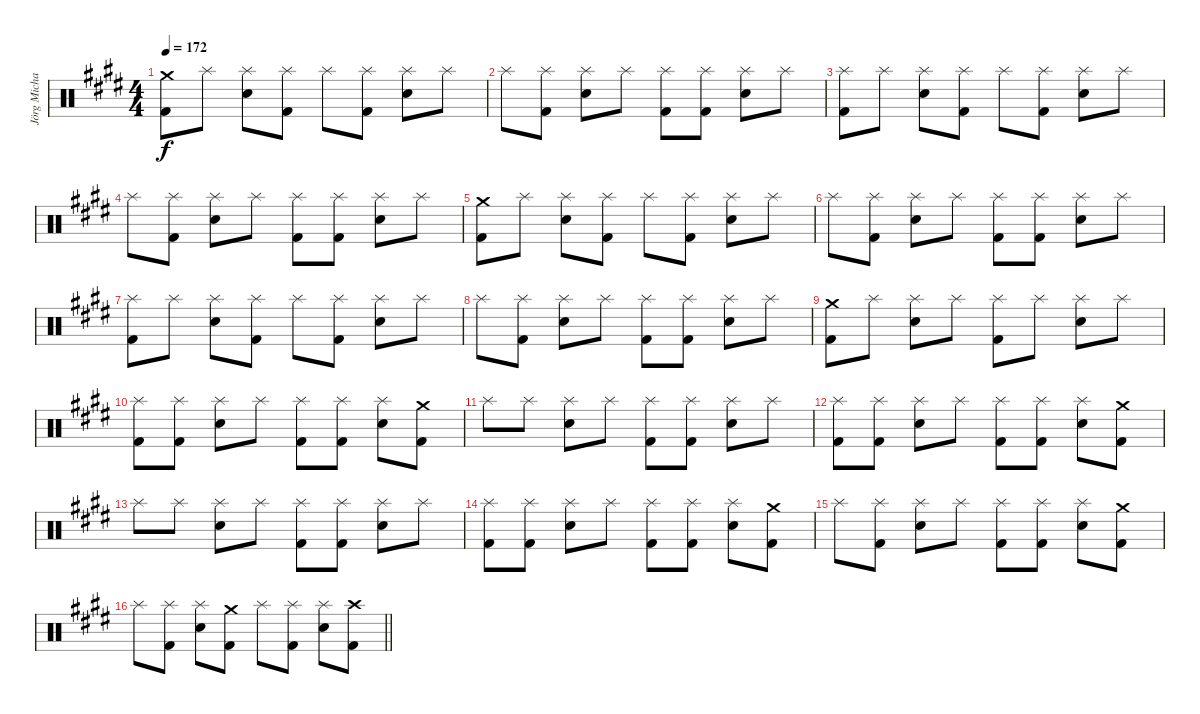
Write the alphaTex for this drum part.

\track ("Jörg Michael" "Jörg Micha") {instrument percussion}
\staff {score}
\articulation defaults
\ts (4 4)
\tempo 172
\clef neutral
\ks c#minor
("Crash medium (hit)" "Kick (hit) 2").8{dy f} "Splash (hit)".8 ("Splash (hit)" "Snare (hit) 2").8 ("Splash (hit)" "Kick (hit) 2").8 "Splash (hit)".8 ("Splash (hit)" "Kick (hit) 2").8 ("Splash (hit)" "Snare (hit) 2").8 "Splash (hit)".8 |
"Splash (hit)".8 ("Splash (hit)" "Kick (hit) 2").8 ("Splash (hit)" "Snare (hit) 2").8 "Splash (hit)".8 ("Splash (hit)" "Kick (hit) 2").8 ("Splash (hit)" "Kick (hit) 2").8 ("Splash (hit)" "Snare (hit) 2").8 "Splash (hit)".8 |
("Splash (hit)" "Kick (hit) 2").8 "Splash (hit)".8 ("Splash (hit)" "Snare (hit) 2").8 ("Splash (hit)" "Kick (hit) 2").8 "Splash (hit)".8 ("Splash (hit)" "Kick (hit) 2").8 ("Splash (hit)" "Snare (hit) 2").8 "Splash (hit)".8 |
"Splash (hit)".8 ("Splash (hit)" "Kick (hit) 2").8 ("Splash (hit)" "Snare (hit) 2").8 "Splash (hit)".8 ("Splash (hit)" "Kick (hit) 2").8 ("Splash (hit)" "Kick (hit) 2").8 ("Splash (hit)" "Snare (hit) 2").8 "Splash (hit)".8 |
("Crash medium (hit)" "Kick (hit) 2").8 "Splash (hit)".8 ("Splash (hit)" "Snare (hit) 2").8 ("Splash (hit)" "Kick (hit) 2").8 "Splash (hit)".8 ("Splash (hit)" "Kick (hit) 2").8 ("Splash (hit)" "Snare (hit) 2").8 "Splash (hit)".8 |
"Splash (hit)".8 ("Splash (hit)" "Kick (hit) 2").8 ("Splash (hit)" "Snare (hit) 2").8 "Splash (hit)".8 ("Splash (hit)" "Kick (hit) 2").8 ("Splash (hit)" "Kick (hit) 2").8 ("Splash (hit)" "Snare (hit) 2").8 "Splash (hit)".8 |
("Splash (hit)" "Kick (hit) 2").8 "Splash (hit)".8 ("Splash (hit)" "Snare (hit) 2").8 ("Splash (hit)" "Kick (hit) 2").8 "Splash (hit)".8 ("Splash (hit)" "Kick (hit) 2").8 ("Splash (hit)" "Snare (hit) 2").8 "Splash (hit)".8 |
"Splash (hit)".8 ("Splash (hit)" "Kick (hit) 2").8 ("Splash (hit)" "Snare (hit) 2").8 "Splash (hit)".8 ("Splash (hit)" "Kick (hit) 2").8 ("Splash (hit)" "Kick (hit) 2").8 ("Splash (hit)" "Snare (hit) 2").8 "Splash (hit)".8 |
("Crash medium (hit)" "Kick (hit) 2").8 "Splash (hit)".8 ("Splash (hit)" "Snare (hit) 2").8 "Splash (hit)".8 ("Splash (hit)" "Kick (hit) 2").8 "Splash (hit)".8 ("Splash (hit)" "Snare (hit) 2").8 "Splash (hit)".8 |
("Splash (hit)" "Kick (hit) 2").8 ("Splash (hit)" "Kick (hit) 2").8 ("Splash (hit)" "Snare (hit) 2").8 "Splash (hit)".8 ("Splash (hit)" "Kick (hit) 2").8 ("Splash (hit)" "Kick (hit) 2").8 ("Splash (hit)" "Snare (hit) 2").8 ("Crash medium (hit)" "Kick (hit) 2").8 |
"Splash (hit)".8 "Splash (hit)".8 ("Splash (hit)" "Snare (hit) 2").8 "Splash (hit)".8 ("Splash (hit)" "Kick (hit) 2").8 ("Splash (hit)" "Kick (hit) 2").8 ("Splash (hit)" "Snare (hit) 2").8 "Splash (hit)".8 |
("Splash (hit)" "Kick (hit) 2").8 ("Splash (hit)" "Kick (hit) 2").8 ("Splash (hit)" "Snare (hit) 2").8 "Splash (hit)".8 ("Splash (hit)" "Kick (hit) 2").8 ("Splash (hit)" "Kick (hit) 2").8 ("Splash (hit)" "Snare (hit) 2").8 ("Crash medium (hit)" "Kick (hit) 2").8 |
"Splash (hit)".8 "Splash (hit)".8 ("Splash (hit)" "Snare (hit) 2").8 "Splash (hit)".8 ("Splash (hit)" "Kick (hit) 2").8 ("Splash (hit)" "Kick (hit) 2").8 ("Splash (hit)" "Snare (hit) 2").8 "Splash (hit)".8 |
("Splash (hit)" "Kick (hit) 2").8 ("Splash (hit)" "Kick (hit) 2").8 ("Splash (hit)" "Snare (hit) 2").8 "Splash (hit)".8 ("Splash (hit)" "Kick (hit) 2").8 ("Splash (hit)" "Kick (hit) 2").8 ("Splash (hit)" "Snare (hit) 2").8 ("Crash medium (hit)" "Kick (hit) 2").8 |
"Splash (hit)".8 ("Splash (hit)" "Kick (hit) 2").8 ("Splash (hit)" "Snare (hit) 2").8 "Splash (hit)".8 ("Splash (hit)" "Kick (hit) 2").8 ("Splash (hit)" "Kick (hit) 2").8 ("Splash (hit)" "Snare (hit) 2").8 ("Crash medium (hit)" "Kick (hit) 2").8 |
\barLineRight lightlight "Splash (hit)".8
("Splash (hit)" "Kick (hit) 2").8 ("Splash (hit)" "Snare (hit) 2").8 ("Crash medium (hit)" "Kick (hit) 2").8 "Splash (hit)".8 ("Splash (hit)" "Kick (hit) 2").8 ("Splash (hit)" "Snare (hit) 2").8 ("Crash high (hit)" "Kick (hit) 2").8
